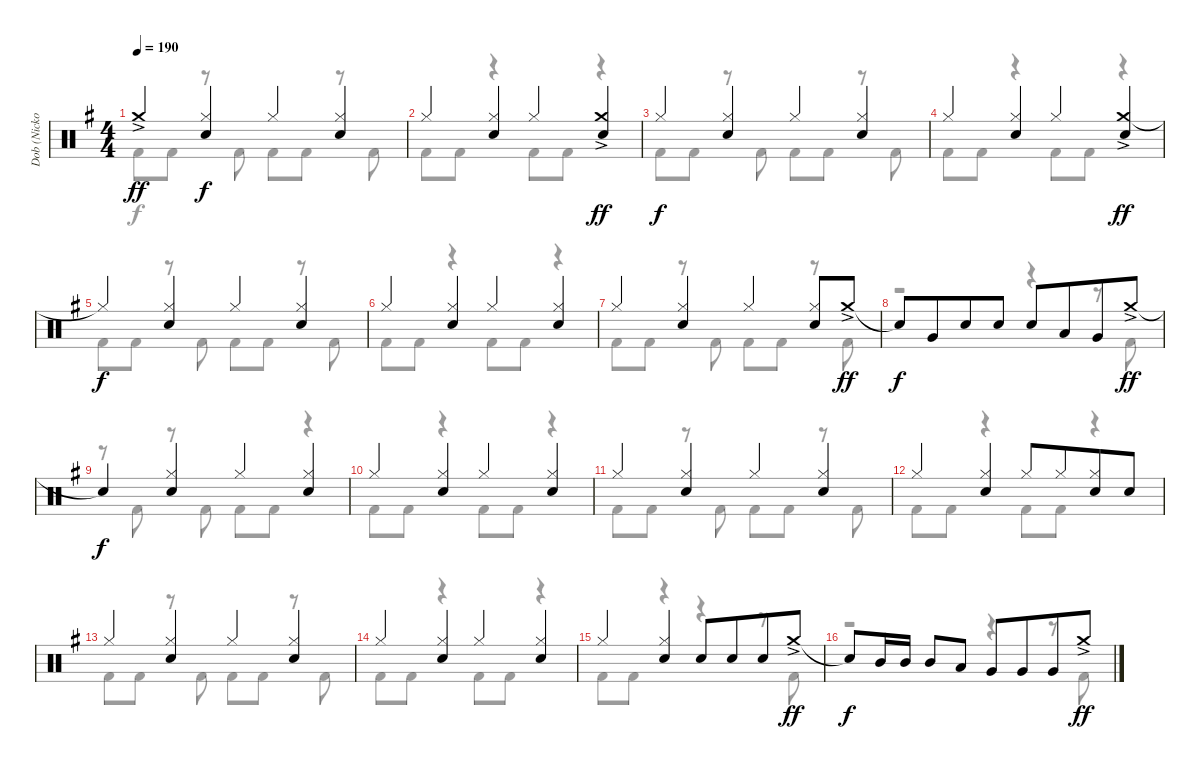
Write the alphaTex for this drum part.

\track ("Dob (Nicko McBrain)" "Dob (Nicko") {instrument percussion}
\staff {score}
\articulation defaults
\voice
\ts (4 4)
\tempo 190
\clef neutral
\ks g "Crash medium (hit)"{ac}.4{dy ff}
("Hi-Hat (closed)" "Electric Snare (hit)").4{dy f} "Hi-Hat (closed)".4 ("Hi-Hat (closed)" "Electric Snare (hit)").4 |
"Hi-Hat (closed)".4 ("Hi-Hat (closed)" "Electric Snare (hit)").4 "Hi-Hat (closed)".4 ("Crash medium (hit)"{ac} "Electric Snare (hit)").4{dy ff} |
"Hi-Hat (closed)".4{dy f} ("Hi-Hat (closed)" "Electric Snare (hit)").4 "Hi-Hat (closed)".4 ("Hi-Hat (closed)" "Electric Snare (hit)").4 |
"Hi-Hat (closed)".4 ("Hi-Hat (closed)" "Electric Snare (hit)").4 "Hi-Hat (closed)".4 ("Crash medium (hit)"{ac} "Electric Snare (hit)").4{dy ff} |
"Hi-Hat (closed)"{t}.4{dy f} ("Hi-Hat (closed)" "Electric Snare (hit)").4 "Hi-Hat (closed)".4 ("Hi-Hat (closed)" "Electric Snare (hit)").4 |
"Hi-Hat (closed)".4 ("Hi-Hat (closed)" "Electric Snare (hit)").4 "Hi-Hat (closed)".4 ("Hi-Hat (closed)" "Electric Snare (hit)").4 |
"Hi-Hat (closed)".4 ("Hi-Hat (closed)" "Electric Snare (hit)").4 "Hi-Hat (closed)".4 ("Hi-Hat (closed)" "Electric Snare (hit)").8 "Crash medium (hit)"{ac}.8{dy ff} |
"Snare (hit)"{t}.8{dy f} "Very Low Tom (hit)".8{beam merge} "Electric Snare (hit)".8 "Electric Snare (hit)".8 "Electric Snare (hit)".8 "Low Tom (hit)".8{beam merge} "Very Low Tom (hit)".8 "Crash medium (hit)"{ac}.8{dy ff} |
"Snare (hit)"{t}.4{dy f} ("Hi-Hat (closed)" "Electric Snare (hit)").4 "Hi-Hat (closed)".4 ("Hi-Hat (closed)" "Electric Snare (hit)").4 |
"Hi-Hat (closed)".4 ("Hi-Hat (closed)" "Electric Snare (hit)").4 "Hi-Hat (closed)".4 ("Hi-Hat (closed)" "Electric Snare (hit)").4 |
"Hi-Hat (closed)".4 ("Hi-Hat (closed)" "Electric Snare (hit)").4 "Hi-Hat (closed)".4 ("Hi-Hat (closed)" "Electric Snare (hit)").4 |
"Hi-Hat (closed)".4 ("Hi-Hat (closed)" "Electric Snare (hit)").4 "Hi-Hat (closed)".8 "Hi-Hat (closed)".8{beam merge} ("Hi-Hat (closed)" "Electric Snare (hit)").8 "Electric Snare (hit)".8 |
"Hi-Hat (closed)".4 ("Hi-Hat (closed)" "Electric Snare (hit)").4 "Hi-Hat (closed)".4 ("Hi-Hat (closed)" "Electric Snare (hit)").4 |
"Hi-Hat (closed)".4 ("Hi-Hat (closed)" "Electric Snare (hit)").4 "Hi-Hat (closed)".4 ("Hi-Hat (closed)" "Electric Snare (hit)").4 |
"Hi-Hat (closed)".4 ("Hi-Hat (closed)" "Electric Snare (hit)").4 "Electric Snare (hit)".8 "Electric Snare (hit)".8{beam merge} "Electric Snare (hit)".8 "Crash medium (hit)"{ac}.8{dy ff} |
"Snare (hit)"{t}.8{dy f} "Mid Tom (hit)".16 "Mid Tom (hit)".16 "Mid Tom (hit)".8 "Low Tom (hit)".8 "Very Low Tom (hit)".8 "Very Low Tom (hit)".8{beam merge} "Very Low Tom (hit)".8 "Crash medium (hit)"{ac}.8{dy ff}
\voice
\clef neutral
\ottava regular
\simile none
\ks g "Kick (hit) 2".8{dy f} "Kick (hit) 2".8
r.8 "Kick (hit) 2".8 "Kick (hit) 2".8 "Kick (hit) 2".8 r.8 "Kick (hit) 2".8 |
"Kick (hit) 2".8 "Kick (hit) 2".8 r.4 "Kick (hit) 2".8 "Kick (hit) 2".8 r.4 |
"Kick (hit) 2".8 "Kick (hit) 2".8 r.8 "Kick (hit) 2".8 "Kick (hit) 2".8 "Kick (hit) 2".8 r.8 "Kick (hit) 2".8 |
"Kick (hit) 2".8 "Kick (hit) 2".8 r.4 "Kick (hit) 2".8 "Kick (hit) 2".8 r.4 |
"Kick (hit) 2".8 "Kick (hit) 2".8 r.8 "Kick (hit) 2".8 "Kick (hit) 2".8 "Kick (hit) 2".8 r.8 "Kick (hit) 2".8 |
"Kick (hit) 2".8 "Kick (hit) 2".8 r.4 "Kick (hit) 2".8 "Kick (hit) 2".8 r.4 |
"Kick (hit) 2".8 "Kick (hit) 2".8 r.8 "Kick (hit) 2".8 "Kick (hit) 2".8 "Kick (hit) 2".8 r.8 "Kick (hit) 2".8 |
r.2 r.4 r.8 "Kick (hit) 2".8 |
r.8 "Kick (hit) 2".8 r.8 "Kick (hit) 2".8 "Kick (hit) 2".8 "Kick (hit) 2".8 r.4 |
"Kick (hit) 2".8 "Kick (hit) 2".8 r.4 "Kick (hit) 2".8 "Kick (hit) 2".8 r.4 |
"Kick (hit) 2".8 "Kick (hit) 2".8 r.8 "Kick (hit) 2".8 "Kick (hit) 2".8 "Kick (hit) 2".8 r.8 "Kick (hit) 2".8 |
"Kick (hit) 2".8 "Kick (hit) 2".8 r.4 "Kick (hit) 2".8 "Kick (hit) 2".8 r.4 |
"Kick (hit) 2".8 "Kick (hit) 2".8 r.8 "Kick (hit) 2".8 "Kick (hit) 2".8 "Kick (hit) 2".8 r.8 "Kick (hit) 2".8 |
"Kick (hit) 2".8 "Kick (hit) 2".8 r.4 "Kick (hit) 2".8 "Kick (hit) 2".8 r.4 |
"Kick (hit) 2".8 "Kick (hit) 2".8 r.4 r.4 r.8 "Kick (hit) 2".8 |
r.2 r.4 r.8 "Kick (hit) 2".8
